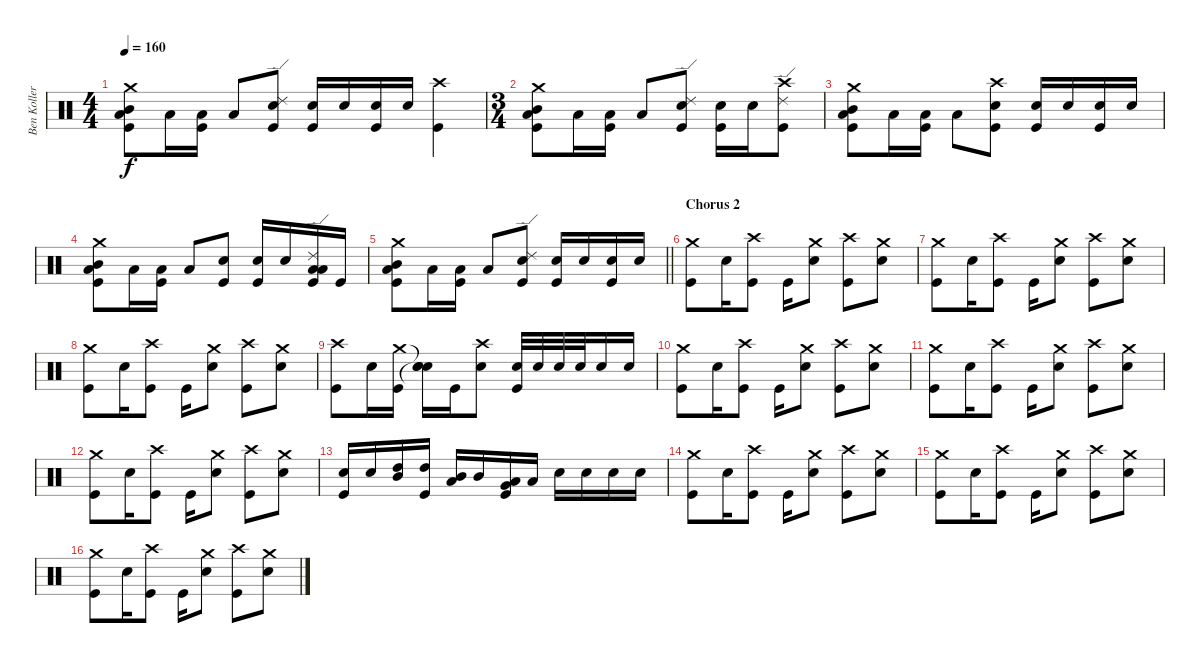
\track ("Ben Koller" "Ben Koller") {instrument percussion}
\staff {score}
\articulation defaults
\ts (4 4)
\tempo 160
\clef neutral
\ks c
("Crash medium (hit)" "Mid Tom (hit)" "Low Tom (hit)" "Kick (hit)").8{dy f} "Low Tom (hit)".16 ("Low Tom (hit)" "Kick (hit)").16 "Low Tom (hit)".8 ("Ride (edge) 2" "Electric Snare (hit)" "Kick (hit)").8 ("Electric Snare (hit)" "Kick (hit)").16 "Electric Snare (hit)".16 ("Electric Snare (hit)" "Kick (hit)").16 "Electric Snare (hit)".16 ("Crash high (hit)" "Kick (hit)").4 |
\ts (3 4)
("Crash medium (hit)" "Mid Tom (hit)" "Low Tom (hit)" "Kick (hit)").8 "Low Tom (hit)".16 ("Low Tom (hit)" "Kick (hit)").16 "Low Tom (hit)".8 ("Ride (edge) 2" "Electric Snare (hit)" "Kick (hit)").8 ("Electric Snare (hit)" "Kick (hit)").16 "Electric Snare (hit)".16 ("Ride (edge) 2" "Crash high (hit)" "Kick (hit)").8 |
("Crash medium (hit)" "Mid Tom (hit)" "Low Tom (hit)" "Kick (hit)").8 "Low Tom (hit)".16 ("Low Tom (hit)" "Kick (hit)").16 "Low Tom (hit)".8 ("Crash high (hit)" "Electric Snare (hit)" "Kick (hit)").8 ("Electric Snare (hit)" "Kick (hit)").16 "Electric Snare (hit)".16 ("Electric Snare (hit)" "Kick (hit)").16 "Electric Snare (hit)".16 |
("Crash medium (hit)" "Mid Tom (hit)" "Low Tom (hit)" "Kick (hit)").8 "Low Tom (hit)".16 ("Low Tom (hit)" "Kick (hit)").16 "Low Tom (hit)".8 ("Electric Snare (hit)" "Kick (hit)").8 ("Electric Snare (hit)" "Kick (hit)").16 "Electric Snare (hit)".16 ("Ride (edge) 2" "Low Tom (hit)" "Low Tom (hit)" "Kick (hit)").16 "Kick (hit)".16 |
\barLineRight lightlight
("Crash medium (hit)" "Mid Tom (hit)" "Low Tom (hit)" "Kick (hit)").8 "Low Tom (hit)".16 ("Low Tom (hit)" "Kick (hit)").16 "Low Tom (hit)".8 ("Ride (edge) 2" "Electric Snare (hit)" "Kick (hit)").8 ("Electric Snare (hit)" "Kick (hit)").16 "Electric Snare (hit)".16 ("Electric Snare (hit)" "Kick (hit)").16 "Electric Snare (hit)".16 |
\section ("" "Chorus 2")
("Crash medium (hit)" "Kick (hit)").8 "Electric Snare (hit)".16 ("Crash high (hit)" "Kick (hit)").8 "Kick (hit)".16 ("Crash medium (hit)" "Electric Snare (hit)").8 ("Crash high (hit)" "Kick (hit)").8 ("Crash medium (hit)" "Electric Snare (hit)").8 |
("Crash medium (hit)" "Kick (hit)").8 "Electric Snare (hit)".16 ("Crash high (hit)" "Kick (hit)").8 "Kick (hit)".16 ("Crash medium (hit)" "Electric Snare (hit)").8 ("Crash high (hit)" "Kick (hit)").8 ("Crash medium (hit)" "Electric Snare (hit)").8 |
("Crash medium (hit)" "Kick (hit)").8 "Electric Snare (hit)".16 ("Crash high (hit)" "Kick (hit)").8 "Kick (hit)".16 ("Crash medium (hit)" "Electric Snare (hit)").8 ("Crash high (hit)" "Kick (hit)").8 ("Crash medium (hit)" "Electric Snare (hit)").8 |
("Crash high (hit)" "Kick (hit)").8 "Electric Snare (hit)".16 ("Crash medium (hit)" "Kick (hit)").16 ("Snare (hit)"{t} "Snare (hit)"{t} "Snare (hit)").16 "Kick (hit)".16 ("Crash high (hit)" "Electric Snare (hit)").8 ("Electric Snare (hit)" "Kick (hit)").32 "Electric Snare (hit)".32 "Electric Snare (hit)".32 "Electric Snare (hit)".32 "Electric Snare (hit)".16 "Electric Snare (hit)".16 |
("Crash medium (hit)" "Kick (hit)").8 "Electric Snare (hit)".16 ("Crash high (hit)" "Kick (hit)").8 "Kick (hit)".16 ("Crash medium (hit)" "Electric Snare (hit)").8 ("Crash high (hit)" "Kick (hit)").8 ("Crash medium (hit)" "Electric Snare (hit)").8 |
("Crash medium (hit)" "Kick (hit)").8 "Electric Snare (hit)".16 ("Crash high (hit)" "Kick (hit)").8 "Kick (hit)".16 ("Crash medium (hit)" "Electric Snare (hit)").8 ("Crash high (hit)" "Kick (hit)").8 ("Crash medium (hit)" "Electric Snare (hit)").8 |
("Crash medium (hit)" "Kick (hit)").8 "Electric Snare (hit)".16 ("Crash high (hit)" "Kick (hit)").8 "Kick (hit)".16 ("Crash medium (hit)" "Electric Snare (hit)").8 ("Crash high (hit)" "Kick (hit)").8 ("Crash medium (hit)" "Electric Snare (hit)").8 |
("Electric Snare (hit)" "Kick (hit)").16 "Electric Snare (hit)".16 ("High Tom (hit)" "Mid Tom (hit)").16 ("High Tom (hit)" "Kick (hit)").16 ("Mid Tom (hit)" "Low Tom (hit)").16 "Mid Tom (hit)".16 ("Low Tom (hit)" "Very Low Tom (hit)" "Kick (hit)").16 "Low Tom (hit)".16 "Electric Snare (hit)".16 "Electric Snare (hit)".16 "Electric Snare (hit)".16 "Electric Snare (hit)".16 |
("Crash medium (hit)" "Kick (hit)").8 "Electric Snare (hit)".16 ("Crash high (hit)" "Kick (hit)").8 "Kick (hit)".16 ("Crash medium (hit)" "Electric Snare (hit)").8 ("Crash high (hit)" "Kick (hit)").8 ("Crash medium (hit)" "Electric Snare (hit)").8 |
("Crash medium (hit)" "Kick (hit)").8 "Electric Snare (hit)".16 ("Crash high (hit)" "Kick (hit)").8 "Kick (hit)".16 ("Crash medium (hit)" "Electric Snare (hit)").8 ("Crash high (hit)" "Kick (hit)").8 ("Crash medium (hit)" "Electric Snare (hit)").8 |
("Crash medium (hit)" "Kick (hit)").8 "Electric Snare (hit)".16 ("Crash high (hit)" "Kick (hit)").8 "Kick (hit)".16 ("Crash medium (hit)" "Electric Snare (hit)").8 ("Crash high (hit)" "Kick (hit)").8 ("Crash medium (hit)" "Electric Snare (hit)").8
